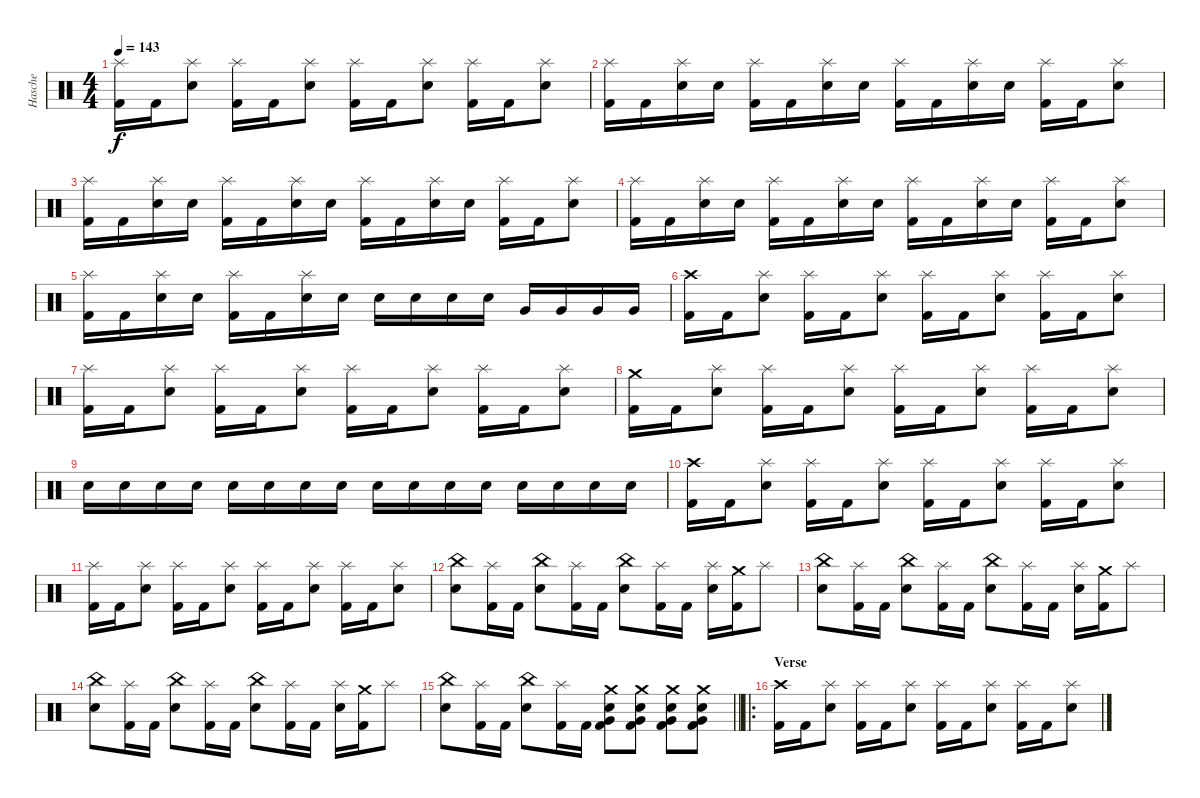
\track ("Hasche" "Hasche") {instrument percussion}
\staff {score}
\articulation defaults
\ts (4 4)
\tempo 143
\clef neutral
\ks c
("Splash (hit)" "Kick (hit) 2").16{dy f} "Kick (hit) 2".16 ("Splash (hit)" "Snare (hit) 2").8 ("Splash (hit)" "Kick (hit) 2").16 "Kick (hit) 2".16 ("Splash (hit)" "Snare (hit) 2").8 ("Splash (hit)" "Kick (hit) 2").16 "Kick (hit) 2".16 ("Splash (hit)" "Snare (hit) 2").8 ("Splash (hit)" "Kick (hit) 2").16 "Kick (hit) 2".16 ("Splash (hit)" "Snare (hit) 2").8 |
("Splash (hit)" "Kick (hit) 2").16 "Kick (hit) 2".16 ("Splash (hit)" "Snare (hit) 2").16 "Snare (hit) 2".16 ("Splash (hit)" "Kick (hit) 2").16 "Kick (hit) 2".16 ("Splash (hit)" "Snare (hit) 2").16 "Snare (hit) 2".16 ("Splash (hit)" "Kick (hit) 2").16 "Kick (hit) 2".16 ("Splash (hit)" "Snare (hit) 2").16 "Snare (hit) 2".16 ("Splash (hit)" "Kick (hit) 2").16 "Kick (hit) 2".16 ("Splash (hit)" "Snare (hit) 2").8 |
("Splash (hit)" "Kick (hit) 2").16 "Kick (hit) 2".16 ("Splash (hit)" "Snare (hit) 2").16 "Snare (hit) 2".16 ("Splash (hit)" "Kick (hit) 2").16 "Kick (hit) 2".16 ("Splash (hit)" "Snare (hit) 2").16 "Snare (hit) 2".16 ("Splash (hit)" "Kick (hit) 2").16 "Kick (hit) 2".16 ("Splash (hit)" "Snare (hit) 2").16 "Snare (hit) 2".16 ("Splash (hit)" "Kick (hit) 2").16 "Kick (hit) 2".16 ("Splash (hit)" "Snare (hit) 2").8 |
("Splash (hit)" "Kick (hit) 2").16 "Kick (hit) 2".16 ("Splash (hit)" "Snare (hit) 2").16 "Snare (hit) 2".16 ("Splash (hit)" "Kick (hit) 2").16 "Kick (hit) 2".16 ("Splash (hit)" "Snare (hit) 2").16 "Snare (hit) 2".16 ("Splash (hit)" "Kick (hit) 2").16 "Kick (hit) 2".16 ("Splash (hit)" "Snare (hit) 2").16 "Snare (hit) 2".16 ("Splash (hit)" "Kick (hit) 2").16 "Kick (hit) 2".16 ("Splash (hit)" "Snare (hit) 2").8 |
("Splash (hit)" "Kick (hit) 2").16 "Kick (hit) 2".16 ("Splash (hit)" "Snare (hit) 2").16 "Snare (hit) 2".16 ("Splash (hit)" "Kick (hit) 2").16 "Kick (hit) 2".16 ("Splash (hit)" "Snare (hit) 2").16 "Snare (hit) 2".16 "Snare (hit) 2".16 "Snare (hit) 2".16 "Snare (hit) 2".16 "Snare (hit) 2".16 "Very Low Tom (hit)".16 "Very Low Tom (hit)".16 "Very Low Tom (hit)".16 "Very Low Tom (hit)".16 |
("Crash high (hit)" "Kick (hit) 2").16 "Kick (hit) 2".16 ("Splash (hit)" "Snare (hit) 2").8 ("Splash (hit)" "Kick (hit) 2").16 "Kick (hit) 2".16 ("Splash (hit)" "Snare (hit) 2").8 ("Splash (hit)" "Kick (hit) 2").16 "Kick (hit) 2".16 ("Splash (hit)" "Snare (hit) 2").8 ("Splash (hit)" "Kick (hit) 2").16 "Kick (hit) 2".16 ("Splash (hit)" "Snare (hit) 2").8 |
("Splash (hit)" "Kick (hit) 2").16 "Kick (hit) 2".16 ("Splash (hit)" "Snare (hit) 2").8 ("Splash (hit)" "Kick (hit) 2").16 "Kick (hit) 2".16 ("Splash (hit)" "Snare (hit) 2").8 ("Splash (hit)" "Kick (hit) 2").16 "Kick (hit) 2".16 ("Splash (hit)" "Snare (hit) 2").8 ("Splash (hit)" "Kick (hit) 2").16 "Kick (hit) 2".16 ("Splash (hit)" "Snare (hit) 2").8 |
("Crash medium (hit)" "Kick (hit) 2").16 "Kick (hit) 2".16 ("Splash (hit)" "Snare (hit) 2").8 ("Splash (hit)" "Kick (hit) 2").16 "Kick (hit) 2".16 ("Splash (hit)" "Snare (hit) 2").8 ("Splash (hit)" "Kick (hit) 2").16 "Kick (hit) 2".16 ("Splash (hit)" "Snare (hit) 2").8 ("Splash (hit)" "Kick (hit) 2").16 "Kick (hit) 2".16 ("Splash (hit)" "Snare (hit) 2").8 |
"Snare (hit) 2".16 "Snare (hit) 2".16 "Snare (hit) 2".16 "Snare (hit) 2".16 "Snare (hit) 2".16 "Snare (hit) 2".16 "Snare (hit) 2".16 "Snare (hit) 2".16 "Snare (hit) 2".16 "Snare (hit) 2".16 "Snare (hit) 2".16 "Snare (hit) 2".16 "Snare (hit) 2".16 "Snare (hit) 2".16 "Snare (hit) 2".16 "Snare (hit) 2".16 |
("Crash high (hit)" "Kick (hit) 2").16 "Kick (hit) 2".16 ("Splash (hit)" "Snare (hit) 2").8 ("Splash (hit)" "Kick (hit) 2").16 "Kick (hit) 2".16 ("Splash (hit)" "Snare (hit) 2").8 ("Splash (hit)" "Kick (hit) 2").16 "Kick (hit) 2".16 ("Splash (hit)" "Snare (hit) 2").8 ("Splash (hit)" "Kick (hit) 2").16 "Kick (hit) 2".16 ("Splash (hit)" "Snare (hit) 2").8 |
("Splash (hit)" "Kick (hit) 2").16 "Kick (hit) 2".16 ("Splash (hit)" "Snare (hit) 2").8 ("Splash (hit)" "Kick (hit) 2").16 "Kick (hit) 2".16 ("Splash (hit)" "Snare (hit) 2").8 ("Splash (hit)" "Kick (hit) 2").16 "Kick (hit) 2".16 ("Splash (hit)" "Snare (hit) 2").8 ("Splash (hit)" "Kick (hit) 2").16 "Kick (hit) 2".16 ("Splash (hit)" "Snare (hit) 2").8 |
("China (hit)" "Snare (hit) 2").8 ("Splash (hit)" "Kick (hit) 2").16 "Kick (hit) 2".16 ("China (hit)" "Snare (hit) 2").8 ("Splash (hit)" "Kick (hit) 2").16 "Kick (hit) 2".16 ("China (hit)" "Snare (hit) 2").8 ("Splash (hit)" "Kick (hit) 2").16 "Kick (hit) 2".16 ("Splash (hit)" "Snare (hit) 2").16 ("Crash medium (hit)" "Kick (hit) 2").16 "Splash (hit)".8 |
("China (hit)" "Snare (hit) 2").8 ("Splash (hit)" "Kick (hit) 2").16 "Kick (hit) 2".16 ("China (hit)" "Snare (hit) 2").8 ("Splash (hit)" "Kick (hit) 2").16 "Kick (hit) 2".16 ("China (hit)" "Snare (hit) 2").8 ("Splash (hit)" "Kick (hit) 2").16 "Kick (hit) 2".16 ("Splash (hit)" "Snare (hit) 2").16 ("Crash medium (hit)" "Kick (hit) 2").16 "Splash (hit)".8 |
("China (hit)" "Snare (hit) 2").8 ("Splash (hit)" "Kick (hit) 2").16 "Kick (hit) 2".16 ("China (hit)" "Snare (hit) 2").8 ("Splash (hit)" "Kick (hit) 2").16 "Kick (hit) 2".16 ("China (hit)" "Snare (hit) 2").8 ("Splash (hit)" "Kick (hit) 2").16 "Kick (hit) 2".16 ("Splash (hit)" "Snare (hit) 2").16 ("Crash medium (hit)" "Kick (hit) 2").16 "Splash (hit)".8 |
\barLineRight lightlight
("China (hit)" "Snare (hit) 2").8 ("Splash (hit)" "Kick (hit) 2").16 "Kick (hit) 2".16 ("China (hit)" "Snare (hit) 2").8 ("Splash (hit)" "Kick (hit) 2").16 "Kick (hit) 2".16 ("Crash medium (hit)" "Very Low Tom (hit)" "Snare (hit) 2" "Kick (hit) 2").8 ("Crash medium (hit)" "Very Low Tom (hit)" "Snare (hit) 2" "Kick (hit) 2").8 ("Crash medium (hit)" "Very Low Tom (hit)" "Snare (hit) 2" "Kick (hit) 2").8 ("Crash medium (hit)" "Very Low Tom (hit)" "Snare (hit) 2" "Kick (hit) 2").8 |
\ro
\section ("" "Verse")
("Crash high (hit)" "Kick (hit) 2").16 "Kick (hit) 2".16 ("Splash (hit)" "Snare (hit) 2").8 ("Splash (hit)" "Kick (hit) 2").16 "Kick (hit) 2".16 ("Splash (hit)" "Snare (hit) 2").8 ("Splash (hit)" "Kick (hit) 2").16 "Kick (hit) 2".16 ("Splash (hit)" "Snare (hit) 2").8 ("Splash (hit)" "Kick (hit) 2").16 "Kick (hit) 2".16 ("Splash (hit)" "Snare (hit) 2").8
